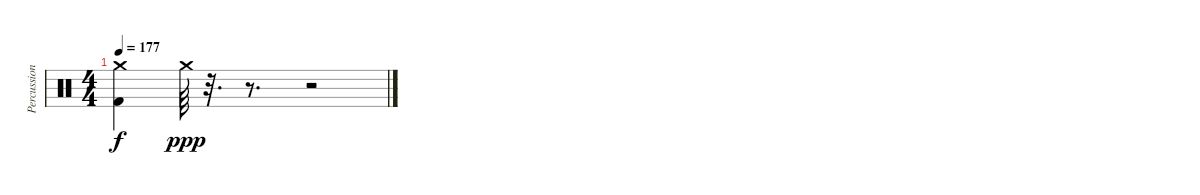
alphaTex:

\track ("Percussions" "Percussion") {instrument percussion}
\staff {score}
\articulation defaults
\ts (4 4)
\tempo 177
\clef neutral
\ks c
("Kick (hit) 2" "Crash medium (hit)").4{dy f} "Crash medium (hit)".64{dy ppp} r.32{d} r.8{d} r.2
